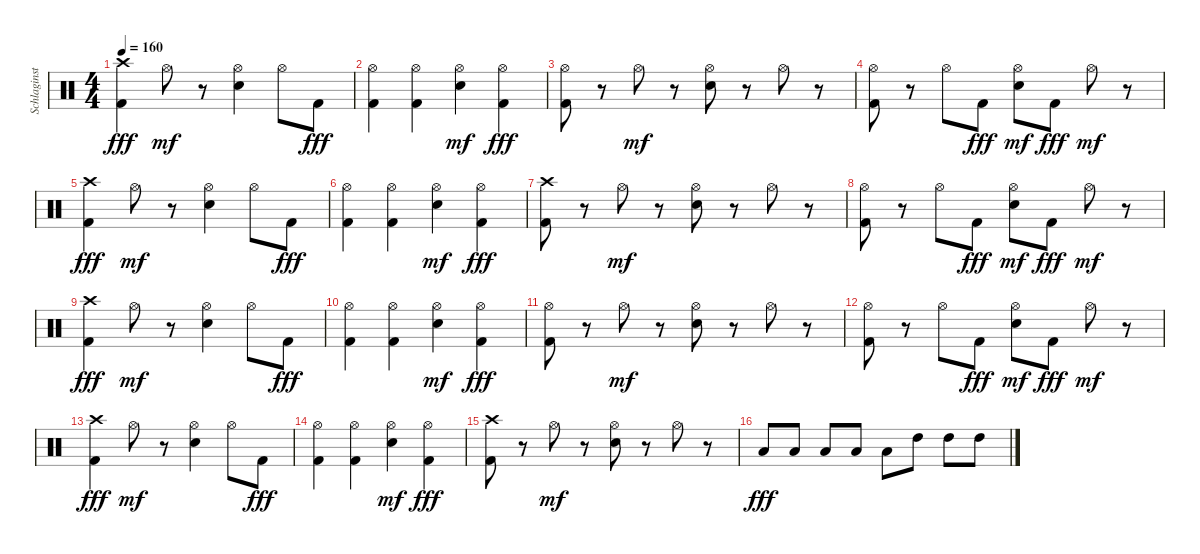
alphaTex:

\track ("Schlaginstrumente - Auswahl" "Schlaginst") {instrument percussion}
\staff {score}
\articulation defaults
\ts (4 4)
\tempo 160
\clef neutral
\ks c
("Crash high (hit)" "Kick (hit) 2").4{dy fff} "Hi-Hat (open)".8{dy mf} r.8 ("Hi-Hat (open)" "Electric Snare (hit)").4 "Hi-Hat (open)".8 "Kick (hit) 2".8{dy fff} |
("Hi-Hat (open)" "Kick (hit) 2").4 ("Hi-Hat (open)" "Kick (hit) 2").4 ("Hi-Hat (open)" "Electric Snare (hit)").4{dy mf} ("Hi-Hat (open)" "Kick (hit) 2").4{dy fff} |
("Hi-Hat (open)" "Kick (hit) 2").8 r.8 "Hi-Hat (open)".8{dy mf} r.8 ("Hi-Hat (open)" "Electric Snare (hit)").8 r.8 "Hi-Hat (open)".8 r.8 |
("Hi-Hat (open)" "Kick (hit) 2").8 r.8 "Hi-Hat (open)".8 "Kick (hit) 2".8{dy fff} ("Hi-Hat (open)" "Electric Snare (hit)").8{dy mf} "Kick (hit) 2".8{dy fff} "Hi-Hat (open)".8{dy mf} r.8 |
("Crash high (hit)" "Kick (hit) 2").4{dy fff} "Hi-Hat (open)".8{dy mf} r.8 ("Hi-Hat (open)" "Electric Snare (hit)").4 "Hi-Hat (open)".8 "Kick (hit) 2".8{dy fff} |
("Hi-Hat (open)" "Kick (hit) 2").4 ("Hi-Hat (open)" "Kick (hit) 2").4 ("Hi-Hat (open)" "Electric Snare (hit)").4{dy mf} ("Hi-Hat (open)" "Kick (hit) 2").4{dy fff} |
("Crash high (hit)" "Kick (hit) 2").8 r.8 "Hi-Hat (open)".8{dy mf} r.8 ("Hi-Hat (open)" "Electric Snare (hit)").8 r.8 "Hi-Hat (open)".8 r.8 |
("Hi-Hat (open)" "Kick (hit) 2").8 r.8 "Hi-Hat (open)".8 "Kick (hit) 2".8{dy fff} ("Hi-Hat (open)" "Electric Snare (hit)").8{dy mf} "Kick (hit) 2".8{dy fff} "Hi-Hat (open)".8{dy mf} r.8 |
("Crash high (hit)" "Kick (hit) 2").4{dy fff} "Hi-Hat (open)".8{dy mf} r.8 ("Hi-Hat (open)" "Electric Snare (hit)").4 "Hi-Hat (open)".8 "Kick (hit) 2".8{dy fff} |
("Hi-Hat (open)" "Kick (hit) 2").4 ("Hi-Hat (open)" "Kick (hit) 2").4 ("Hi-Hat (open)" "Electric Snare (hit)").4{dy mf} ("Hi-Hat (open)" "Kick (hit) 2").4{dy fff} |
("Hi-Hat (open)" "Kick (hit) 2").8 r.8 "Hi-Hat (open)".8{dy mf} r.8 ("Hi-Hat (open)" "Electric Snare (hit)").8 r.8 "Hi-Hat (open)".8 r.8 |
("Hi-Hat (open)" "Kick (hit) 2").8 r.8 "Hi-Hat (open)".8 "Kick (hit) 2".8{dy fff} ("Hi-Hat (open)" "Electric Snare (hit)").8{dy mf} "Kick (hit) 2".8{dy fff} "Hi-Hat (open)".8{dy mf} r.8 |
("Crash high (hit)" "Kick (hit) 2").4{dy fff} "Hi-Hat (open)".8{dy mf} r.8 ("Hi-Hat (open)" "Electric Snare (hit)").4 "Hi-Hat (open)".8 "Kick (hit) 2".8{dy fff} |
("Hi-Hat (open)" "Kick (hit) 2").4 ("Hi-Hat (open)" "Kick (hit) 2").4 ("Hi-Hat (open)" "Electric Snare (hit)").4{dy mf} ("Hi-Hat (open)" "Kick (hit) 2").4{dy fff} |
("Crash high (hit)" "Kick (hit) 2").8 r.8 "Hi-Hat (open)".8{dy mf} r.8 ("Hi-Hat (open)" "Electric Snare (hit)").8 r.8 "Hi-Hat (open)".8 r.8 |
"Low Floor Tom (hit)".8{dy fff} "Low Floor Tom (hit)".8 "Low Floor Tom (hit)".8 "Low Tom (hit)".8 "Low Tom (hit)".8 "High Tom (hit)".8 "High Tom (hit)".8 "High Tom (hit)".8
